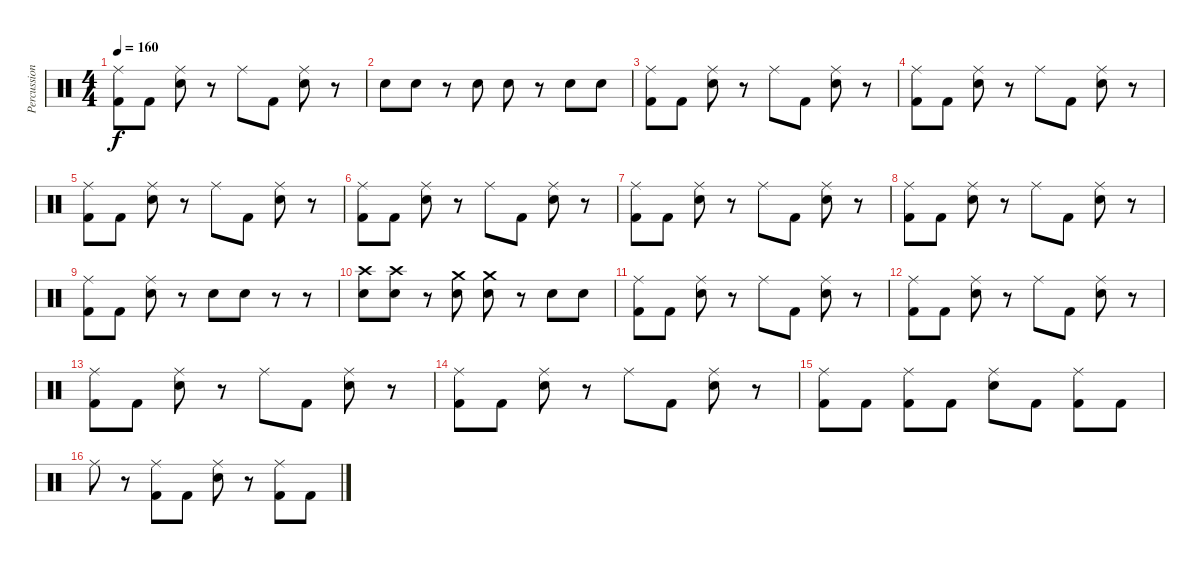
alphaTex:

\track ("Percussion" "Percussion") {instrument percussion}
\staff {score}
\articulation defaults
\ts (4 4)
\tempo 160
\clef neutral
\ks c
("Ride (middle)" "Kick (hit) 2").8{dy f} "Kick (hit) 2".8 ("Ride (middle)" "Electric Snare (hit)").8 r.8 "Ride (middle)".8 "Kick (hit) 2".8 ("Ride (middle)" "Electric Snare (hit)").8 r.8 |
"Electric Snare (hit)".8 "Electric Snare (hit)".8 r.8 "Electric Snare (hit)".8 "Electric Snare (hit)".8 r.8 "Electric Snare (hit)".8 "Electric Snare (hit)".8 |
("Ride (middle)" "Kick (hit) 2").8 "Kick (hit) 2".8 ("Ride (middle)" "Electric Snare (hit)").8 r.8 "Ride (middle)".8 "Kick (hit) 2".8 ("Ride (middle)" "Electric Snare (hit)").8 r.8 |
("Ride (middle)" "Kick (hit) 2").8 "Kick (hit) 2".8 ("Ride (middle)" "Electric Snare (hit)").8 r.8 "Ride (middle)".8 "Kick (hit) 2".8 ("Ride (middle)" "Electric Snare (hit)").8 r.8 |
("Ride (middle)" "Kick (hit) 2").8 "Kick (hit) 2".8 ("Ride (middle)" "Electric Snare (hit)").8 r.8 "Ride (middle)".8 "Kick (hit) 2".8 ("Ride (middle)" "Electric Snare (hit)").8 r.8 |
("Ride (middle)" "Kick (hit) 2").8 "Kick (hit) 2".8 ("Ride (middle)" "Electric Snare (hit)").8 r.8 "Ride (middle)".8 "Kick (hit) 2".8 ("Ride (middle)" "Electric Snare (hit)").8 r.8 |
("Ride (middle)" "Kick (hit) 2").8 "Kick (hit) 2".8 ("Ride (middle)" "Electric Snare (hit)").8 r.8 "Ride (middle)".8 "Kick (hit) 2".8 ("Ride (middle)" "Electric Snare (hit)").8 r.8 |
("Ride (middle)" "Kick (hit) 2").8 "Kick (hit) 2".8 ("Ride (middle)" "Electric Snare (hit)").8 r.8 "Ride (middle)".8 "Kick (hit) 2".8 ("Ride (middle)" "Electric Snare (hit)").8 r.8 |
("Ride (middle)" "Kick (hit) 2").8 "Kick (hit) 2".8 ("Ride (middle)" "Electric Snare (hit)").8 r.8 "Electric Snare (hit)".8 "Electric Snare (hit)".8 r.8 r.8 |
("Crash high (hit)" "Electric Snare (hit)").8 ("Crash high (hit)" "Electric Snare (hit)").8 r.8 ("Crash medium (hit)" "Electric Snare (hit)").8 ("Crash medium (hit)" "Electric Snare (hit)").8 r.8 "Electric Snare (hit)".8 "Electric Snare (hit)".8 |
("Ride (middle)" "Kick (hit) 2").8 "Kick (hit) 2".8 ("Ride (middle)" "Electric Snare (hit)").8 r.8 "Ride (middle)".8 "Kick (hit) 2".8 ("Ride (middle)" "Electric Snare (hit)").8 r.8 |
("Ride (middle)" "Kick (hit) 2").8 "Kick (hit) 2".8 ("Ride (middle)" "Electric Snare (hit)").8 r.8 "Ride (middle)".8 "Kick (hit) 2".8 ("Ride (middle)" "Electric Snare (hit)").8 r.8 |
("Ride (middle)" "Kick (hit) 2").8 "Kick (hit) 2".8 ("Ride (middle)" "Electric Snare (hit)").8 r.8 "Ride (middle)".8 "Kick (hit) 2".8 ("Ride (middle)" "Electric Snare (hit)").8 r.8 |
("Ride (middle)" "Kick (hit) 2").8 "Kick (hit) 2".8 ("Ride (middle)" "Electric Snare (hit)").8 r.8 "Ride (middle)".8 "Kick (hit) 2".8 ("Ride (middle)" "Electric Snare (hit)").8 r.8 |
("Ride (middle)" "Kick (hit) 2").8 "Kick (hit) 2".8 ("Ride (middle)" "Kick (hit) 2").8 "Kick (hit) 2".8 ("Ride (middle)" "Electric Snare (hit)").8 "Kick (hit) 2".8 ("Ride (middle)" "Kick (hit) 2").8 "Kick (hit) 2".8 |
"Ride (middle)".8 r.8 ("Ride (middle)" "Kick (hit) 2").8 "Kick (hit) 2".8 ("Ride (middle)" "Electric Snare (hit)").8 r.8 ("Ride (middle)" "Kick (hit) 2").8 "Kick (hit) 2".8
